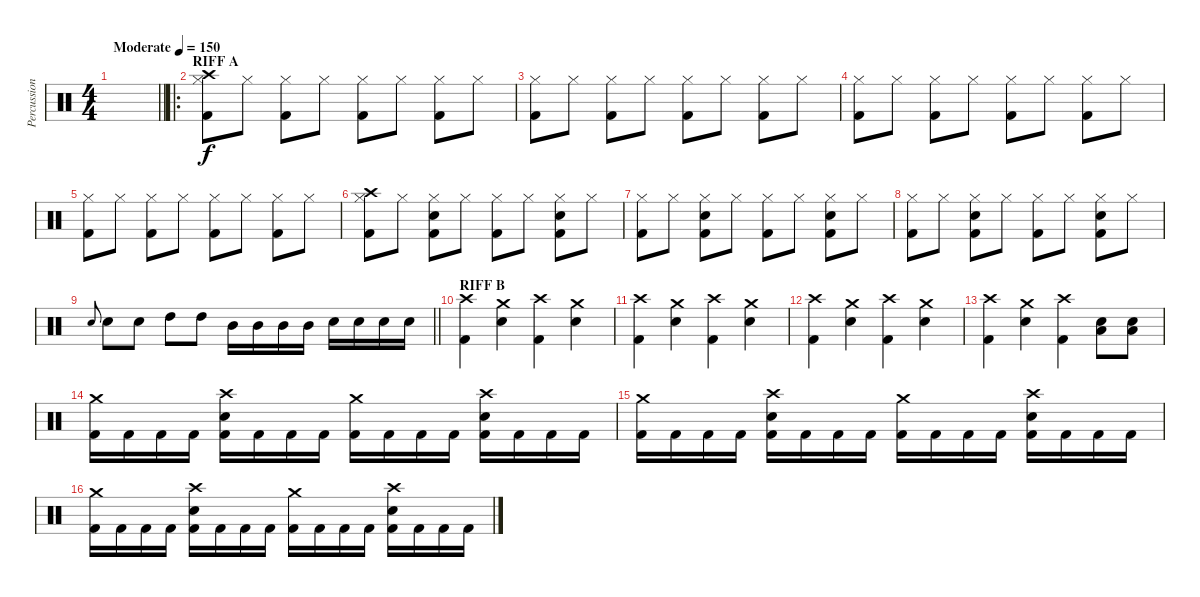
\track ("Percussion" "Percussion") {instrument percussion}
\staff {score}
\articulation defaults
\ts (4 4)
\tempo (150 "Moderate")
\clef neutral
\barLineRight lightlight
\ks c
|
\ro
\section ("" "RIFF A")
("Crash high (hit)" "Hi-Hat (closed)" "Kick (hit) 2").8 "Hi-Hat (closed)".8 ("Hi-Hat (closed)" "Kick (hit) 2").8 "Hi-Hat (closed)".8 ("Hi-Hat (closed)" "Kick (hit) 2").8 "Hi-Hat (closed)".8 ("Hi-Hat (closed)" "Kick (hit) 2").8 "Hi-Hat (closed)".8 |
("Hi-Hat (closed)" "Kick (hit) 2").8 "Hi-Hat (closed)".8 ("Hi-Hat (closed)" "Kick (hit) 2").8 "Hi-Hat (closed)".8 ("Hi-Hat (closed)" "Kick (hit) 2").8 "Hi-Hat (closed)".8 ("Hi-Hat (closed)" "Kick (hit) 2").8 "Hi-Hat (closed)".8 |
("Hi-Hat (closed)" "Kick (hit) 2").8 "Hi-Hat (closed)".8 ("Hi-Hat (closed)" "Kick (hit) 2").8 "Hi-Hat (closed)".8 ("Hi-Hat (closed)" "Kick (hit) 2").8 "Hi-Hat (closed)".8 ("Hi-Hat (closed)" "Kick (hit) 2").8 "Hi-Hat (closed)".8 |
("Hi-Hat (closed)" "Kick (hit) 2").8 "Hi-Hat (closed)".8 ("Hi-Hat (closed)" "Kick (hit) 2").8 "Hi-Hat (closed)".8 ("Hi-Hat (closed)" "Kick (hit) 2").8 "Hi-Hat (closed)".8 ("Hi-Hat (closed)" "Kick (hit) 2").8 "Hi-Hat (closed)".8 |
("Crash high (hit)" "Hi-Hat (closed)" "Kick (hit) 2").8 "Hi-Hat (closed)".8 ("Snare (hit) 2" "Hi-Hat (closed)" "Kick (hit) 2").8 "Hi-Hat (closed)".8 ("Hi-Hat (closed)" "Kick (hit) 2").8 "Hi-Hat (closed)".8 ("Snare (hit) 2" "Hi-Hat (closed)" "Kick (hit) 2").8 "Hi-Hat (closed)".8 |
("Hi-Hat (closed)" "Kick (hit) 2").8 "Hi-Hat (closed)".8 ("Snare (hit) 2" "Hi-Hat (closed)" "Kick (hit) 2").8 "Hi-Hat (closed)".8 ("Hi-Hat (closed)" "Kick (hit) 2").8 "Hi-Hat (closed)".8 ("Snare (hit) 2" "Hi-Hat (closed)" "Kick (hit) 2").8 "Hi-Hat (closed)".8 |
("Hi-Hat (closed)" "Kick (hit) 2").8 "Hi-Hat (closed)".8 ("Snare (hit) 2" "Hi-Hat (closed)" "Kick (hit) 2").8 "Hi-Hat (closed)".8 ("Hi-Hat (closed)" "Kick (hit) 2").8 "Hi-Hat (closed)".8 ("Snare (hit) 2" "Hi-Hat (closed)" "Kick (hit) 2").8 "Hi-Hat (closed)".8 |
\barLineRight lightlight "Snare (hit) 2".8{gr onbeat} "Snare (hit) 2".8 "Snare (hit) 2".8 "High Tom (hit)".8 "High Tom (hit)".8 "Mid Tom (hit)".16 "Mid Tom (hit)".16 "Mid Tom (hit)".16 "Mid Tom (hit)".16 "Snare (hit) 2".16 "Snare (hit) 2".16 "Snare (hit) 2".16 "Snare (hit) 2".16
|
\section ("" "RIFF B")
("Crash high (hit)" "Kick (hit) 2").4 ("Crash medium (hit)" "Snare (hit) 2").4 ("Crash high (hit)" "Kick (hit) 2").4 ("Crash medium (hit)" "Snare (hit) 2").4 |
("Crash high (hit)" "Kick (hit) 2").4 ("Crash medium (hit)" "Snare (hit) 2").4 ("Crash high (hit)" "Kick (hit) 2").4 ("Crash medium (hit)" "Snare (hit) 2").4 |
("Crash high (hit)" "Kick (hit) 2").4 ("Crash medium (hit)" "Snare (hit) 2").4 ("Crash high (hit)" "Kick (hit) 2").4 ("Crash medium (hit)" "Snare (hit) 2").4 |
("Crash high (hit)" "Kick (hit) 2").4 ("Crash medium (hit)" "Snare (hit) 2").4 ("Crash high (hit)" "Kick (hit) 2").4 ("Snare (hit) 2" "Low Floor Tom (hit)").8 ("Snare (hit) 2" "Low Floor Tom (hit)").8 |
("Crash medium (hit)" "Kick (hit) 2").16 "Kick (hit) 2".16 "Kick (hit) 2".16 "Kick (hit) 2".16 ("Crash high (hit)" "Snare (hit) 2" "Kick (hit) 2").16 "Kick (hit) 2".16 "Kick (hit) 2".16 "Kick (hit) 2".16 ("Crash medium (hit)" "Kick (hit) 2").16 "Kick (hit) 2".16 "Kick (hit) 2".16 "Kick (hit) 2".16 ("Crash high (hit)" "Snare (hit) 2" "Kick (hit) 2").16 "Kick (hit) 2".16 "Kick (hit) 2".16 "Kick (hit) 2".16 |
("Crash medium (hit)" "Kick (hit) 2").16 "Kick (hit) 2".16 "Kick (hit) 2".16 "Kick (hit) 2".16 ("Crash high (hit)" "Snare (hit) 2" "Kick (hit) 2").16 "Kick (hit) 2".16 "Kick (hit) 2".16 "Kick (hit) 2".16 ("Crash medium (hit)" "Kick (hit) 2").16 "Kick (hit) 2".16 "Kick (hit) 2".16 "Kick (hit) 2".16 ("Crash high (hit)" "Snare (hit) 2" "Kick (hit) 2").16 "Kick (hit) 2".16 "Kick (hit) 2".16 "Kick (hit) 2".16 |
("Crash medium (hit)" "Kick (hit) 2").16 "Kick (hit) 2".16 "Kick (hit) 2".16 "Kick (hit) 2".16 ("Crash high (hit)" "Snare (hit) 2" "Kick (hit) 2").16 "Kick (hit) 2".16 "Kick (hit) 2".16 "Kick (hit) 2".16 ("Crash medium (hit)" "Kick (hit) 2").16 "Kick (hit) 2".16 "Kick (hit) 2".16 "Kick (hit) 2".16 ("Crash high (hit)" "Snare (hit) 2" "Kick (hit) 2").16 "Kick (hit) 2".16 "Kick (hit) 2".16 "Kick (hit) 2".16
